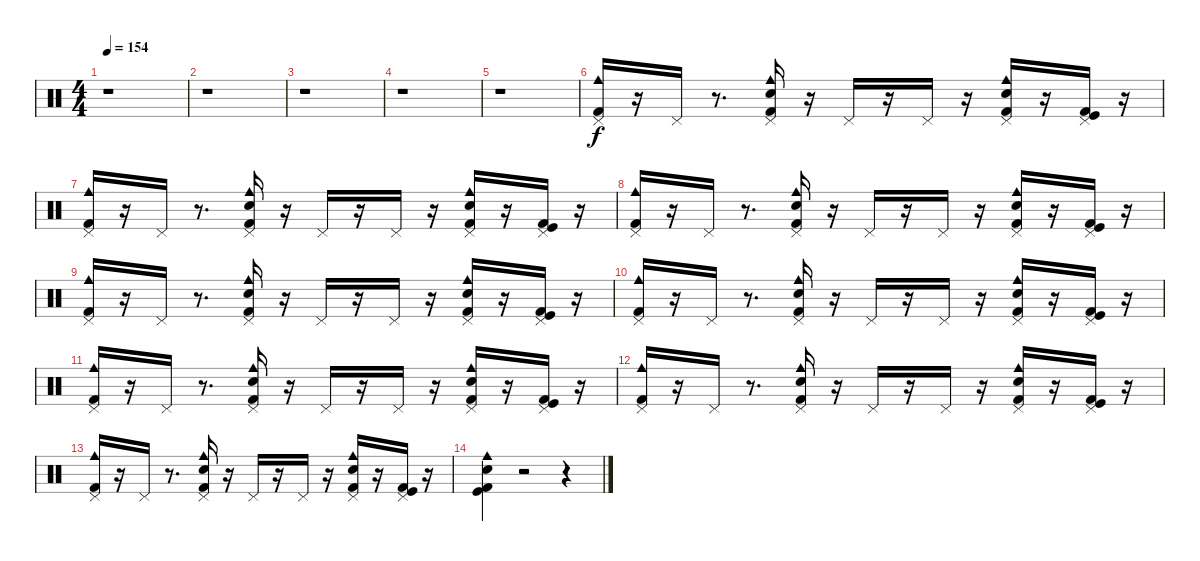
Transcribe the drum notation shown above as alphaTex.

\track "" {instrument percussion}
\staff {score}
\articulation defaults
\ts (4 4)
\tempo 154
\clef neutral
\ks c
r.1{dy f} |
r.1 |
r.1 |
r.1 |
r.1 |
("Pedal Hi-Hat (hit)" "Cowbell medium (hit)" "Kick (hit) 2").16 r.16 "Pedal Hi-Hat (hit)".16 r.8{d} ("Pedal Hi-Hat (hit)" "Cowbell medium (hit)" "Kick (hit) 2" "Electric Snare (hit)").16 r.16 "Pedal Hi-Hat (hit)".16 r.16 "Pedal Hi-Hat (hit)".16 r.16 ("Cowbell medium (hit)" "Pedal Hi-Hat (hit)" "Electric Snare (hit)" "Kick (hit) 2").16 r.16 ("Kick (hit) 2" "Kick (hit)" "Pedal Hi-Hat (hit)").16 r.16 |
("Kick (hit) 2" "Pedal Hi-Hat (hit)" "Cowbell medium (hit)").16 r.16 "Pedal Hi-Hat (hit)".16 r.8{d} ("Kick (hit) 2" "Electric Snare (hit)" "Pedal Hi-Hat (hit)" "Cowbell medium (hit)").16 r.16 "Pedal Hi-Hat (hit)".16 r.16 "Pedal Hi-Hat (hit)".16 r.16 ("Kick (hit) 2" "Electric Snare (hit)" "Pedal Hi-Hat (hit)" "Cowbell medium (hit)").16 r.16 ("Pedal Hi-Hat (hit)" "Kick (hit)" "Kick (hit) 2").16 r.16 |
("Kick (hit) 2" "Cowbell medium (hit)" "Pedal Hi-Hat (hit)").16 r.16 "Pedal Hi-Hat (hit)".16 r.8{d} ("Pedal Hi-Hat (hit)" "Cowbell medium (hit)" "Kick (hit) 2" "Electric Snare (hit)").16 r.16 "Pedal Hi-Hat (hit)".16 r.16 "Pedal Hi-Hat (hit)".16 r.16 ("Pedal Hi-Hat (hit)" "Kick (hit) 2" "Electric Snare (hit)" "Cowbell medium (hit)").16 r.16 ("Kick (hit)" "Kick (hit) 2" "Pedal Hi-Hat (hit)").16 r.16 |
("Pedal Hi-Hat (hit)" "Cowbell medium (hit)" "Kick (hit) 2").16 r.16 "Pedal Hi-Hat (hit)".16 r.8{d} ("Pedal Hi-Hat (hit)" "Electric Snare (hit)" "Kick (hit) 2" "Cowbell medium (hit)").16 r.16 "Pedal Hi-Hat (hit)".16 r.16 "Pedal Hi-Hat (hit)".16 r.16 ("Electric Snare (hit)" "Cowbell medium (hit)" "Pedal Hi-Hat (hit)" "Kick (hit) 2").16 r.16 ("Kick (hit) 2" "Pedal Hi-Hat (hit)" "Kick (hit)").16 r.16 |
("Kick (hit) 2" "Cowbell medium (hit)" "Pedal Hi-Hat (hit)").16 r.16 "Pedal Hi-Hat (hit)".16 r.8{d} ("Kick (hit) 2" "Electric Snare (hit)" "Pedal Hi-Hat (hit)" "Cowbell medium (hit)").16 r.16 "Pedal Hi-Hat (hit)".16 r.16 "Pedal Hi-Hat (hit)".16 r.16 ("Pedal Hi-Hat (hit)" "Kick (hit) 2" "Electric Snare (hit)" "Cowbell medium (hit)").16 r.16 ("Kick (hit) 2" "Kick (hit)" "Pedal Hi-Hat (hit)").16 r.16 |
("Cowbell medium (hit)" "Pedal Hi-Hat (hit)" "Kick (hit) 2").16 r.16 "Pedal Hi-Hat (hit)".16 r.8{d} ("Pedal Hi-Hat (hit)" "Cowbell medium (hit)" "Kick (hit) 2" "Electric Snare (hit)").16 r.16 "Pedal Hi-Hat (hit)".16 r.16 "Pedal Hi-Hat (hit)".16 r.16 ("Electric Snare (hit)" "Cowbell medium (hit)" "Pedal Hi-Hat (hit)" "Kick (hit) 2").16 r.16 ("Pedal Hi-Hat (hit)" "Kick (hit)" "Kick (hit) 2").16 r.16 |
("Pedal Hi-Hat (hit)" "Cowbell medium (hit)" "Kick (hit) 2").16 r.16 "Pedal Hi-Hat (hit)".16 r.8{d} ("Kick (hit) 2" "Electric Snare (hit)" "Pedal Hi-Hat (hit)" "Cowbell medium (hit)").16 r.16 "Pedal Hi-Hat (hit)".16 r.16 "Pedal Hi-Hat (hit)".16 r.16 ("Electric Snare (hit)" "Kick (hit) 2" "Pedal Hi-Hat (hit)" "Cowbell medium (hit)").16 r.16 ("Kick (hit) 2" "Kick (hit)" "Pedal Hi-Hat (hit)").16 r.16 |
("Kick (hit) 2" "Cowbell medium (hit)" "Pedal Hi-Hat (hit)").16 r.16 "Pedal Hi-Hat (hit)".16 r.8{d} ("Cowbell medium (hit)" "Pedal Hi-Hat (hit)" "Kick (hit) 2" "Electric Snare (hit)").16 r.16 "Pedal Hi-Hat (hit)".16 r.16 "Pedal Hi-Hat (hit)".16 r.16 ("Pedal Hi-Hat (hit)" "Kick (hit) 2" "Electric Snare (hit)" "Cowbell medium (hit)").16 r.16 ("Pedal Hi-Hat (hit)" "Kick (hit)" "Kick (hit) 2").16 r.16 |
("Electric Snare (hit)" "Cowbell medium (hit)" "Kick (hit) 2" "Kick (hit)").4 r.2 r.4
